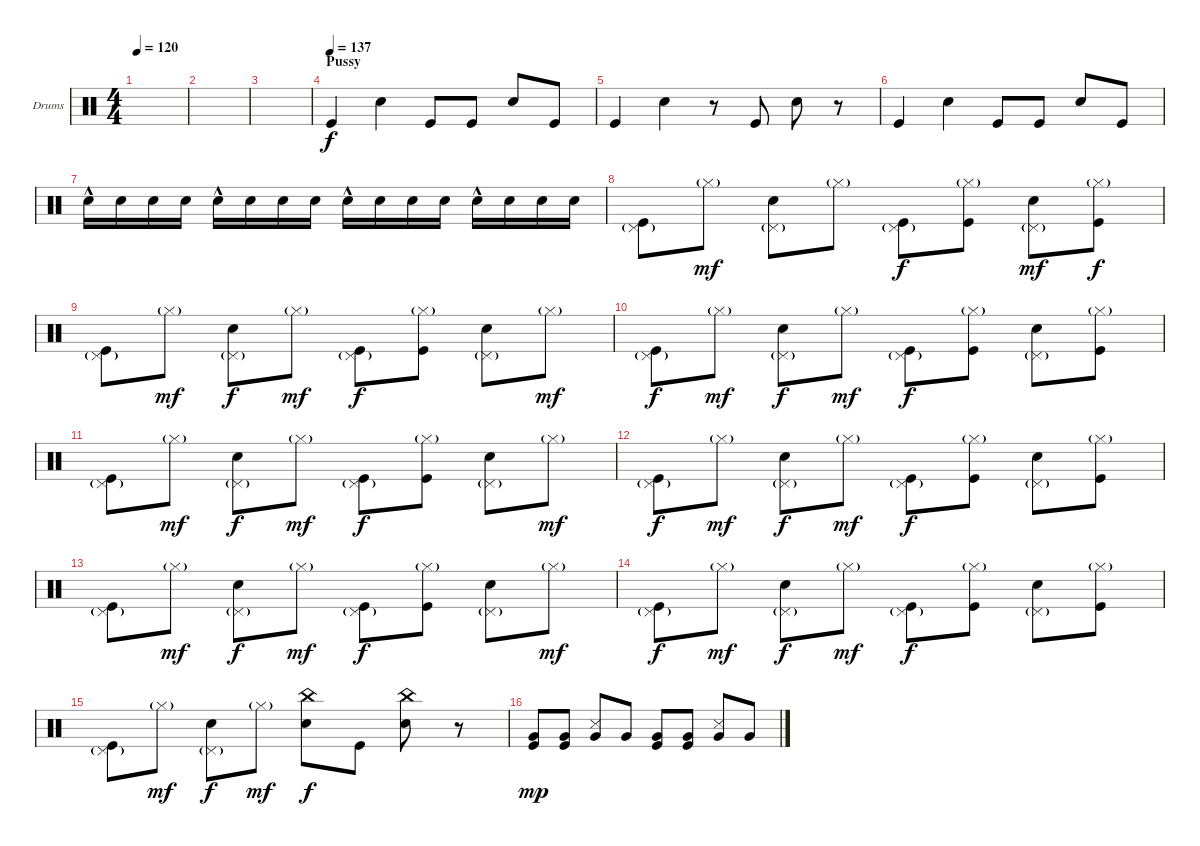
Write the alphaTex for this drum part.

\bracketExtendMode groupsimilarinstruments
\firstSystemTrackNameOrientation horizontal
\otherSystemsTrackNameOrientation horizontal
\track ("Drumkit (Christoph)" "Drums") {instrument percussion}
\staff {score}
\articulation defaults
\ts (4 4)
\tempo 120
\clef neutral
\ks c
|
|
|
\section ("" "Pussy")
\tempo (137)
"Kick (hit)".4 "Snare (hit) 2".4 "Kick (hit)".8 "Kick (hit)".8 "Snare (hit) 2".8 "Kick (hit)".8 |
"Kick (hit)".4 "Snare (hit) 2".4 r.8 "Kick (hit)".8 "Snare (hit) 2".8 r.8 |
"Kick (hit)".4 "Snare (hit) 2".4 "Kick (hit)".8 "Kick (hit)".8 "Snare (hit) 2".8 "Kick (hit)".8 |
"Snare (hit) 2"{hac}.16 "Snare (hit) 2".16 "Snare (hit) 2".16 "Snare (hit) 2".16 "Snare (hit) 2"{hac}.16 "Snare (hit) 2".16 "Snare (hit) 2".16 "Snare (hit) 2".16 "Snare (hit) 2"{hac}.16 "Snare (hit) 2".16 "Snare (hit) 2".16 "Snare (hit) 2".16 "Snare (hit) 2"{hac}.16 "Snare (hit) 2".16 "Snare (hit) 2".16 "Snare (hit) 2".16 |
("Pedal Hi-Hat (hit)"{g} "Kick (hit)").8 "Hi-Hat (closed)"{g}.8{dy mf} ("Pedal Hi-Hat (hit)"{g} "Snare (hit) 2").8 "Hi-Hat (closed)"{g}.8 ("Pedal Hi-Hat (hit)"{g} "Kick (hit)").8{dy f} ("Hi-Hat (closed)"{g} "Kick (hit)").8 ("Pedal Hi-Hat (hit)"{g} "Snare (hit) 2").8{dy mf} ("Hi-Hat (closed)"{g} "Kick (hit)").8{dy f} |
("Pedal Hi-Hat (hit)"{g} "Kick (hit)").8 "Hi-Hat (closed)"{g}.8{dy mf} ("Pedal Hi-Hat (hit)"{g} "Snare (hit) 2").8{dy f} "Hi-Hat (closed)"{g}.8{dy mf} ("Pedal Hi-Hat (hit)"{g} "Kick (hit)").8{dy f} ("Hi-Hat (closed)"{g} "Kick (hit)").8 ("Pedal Hi-Hat (hit)"{g} "Snare (hit) 2").8 "Hi-Hat (closed)"{g}.8{dy mf} |
("Pedal Hi-Hat (hit)"{g} "Kick (hit)").8{dy f} "Hi-Hat (closed)"{g}.8{dy mf} ("Pedal Hi-Hat (hit)"{g} "Snare (hit) 2").8{dy f} "Hi-Hat (closed)"{g}.8{dy mf} ("Pedal Hi-Hat (hit)"{g} "Kick (hit)").8{dy f} ("Hi-Hat (closed)"{g} "Kick (hit)").8 ("Pedal Hi-Hat (hit)"{g} "Snare (hit) 2").8 ("Hi-Hat (closed)"{g} "Kick (hit)").8 |
("Pedal Hi-Hat (hit)"{g} "Kick (hit)").8 "Hi-Hat (closed)"{g}.8{dy mf} ("Pedal Hi-Hat (hit)"{g} "Snare (hit) 2").8{dy f} "Hi-Hat (closed)"{g}.8{dy mf} ("Pedal Hi-Hat (hit)"{g} "Kick (hit)").8{dy f} ("Hi-Hat (closed)"{g} "Kick (hit)").8 ("Pedal Hi-Hat (hit)"{g} "Snare (hit) 2").8 "Hi-Hat (closed)"{g}.8{dy mf} |
("Pedal Hi-Hat (hit)"{g} "Kick (hit)").8{dy f} "Hi-Hat (closed)"{g}.8{dy mf} ("Pedal Hi-Hat (hit)"{g} "Snare (hit) 2").8{dy f} "Hi-Hat (closed)"{g}.8{dy mf} ("Pedal Hi-Hat (hit)"{g} "Kick (hit)").8{dy f} ("Hi-Hat (closed)"{g} "Kick (hit)").8 ("Pedal Hi-Hat (hit)"{g} "Snare (hit) 2").8 ("Hi-Hat (closed)"{g} "Kick (hit)").8 |
("Pedal Hi-Hat (hit)"{g} "Kick (hit)").8 "Hi-Hat (closed)"{g}.8{dy mf} ("Pedal Hi-Hat (hit)"{g} "Snare (hit) 2").8{dy f} "Hi-Hat (closed)"{g}.8{dy mf} ("Pedal Hi-Hat (hit)"{g} "Kick (hit)").8{dy f} ("Hi-Hat (closed)"{g} "Kick (hit)").8 ("Pedal Hi-Hat (hit)"{g} "Snare (hit) 2").8 "Hi-Hat (closed)"{g}.8{dy mf} |
("Pedal Hi-Hat (hit)"{g} "Kick (hit)").8{dy f} "Hi-Hat (closed)"{g}.8{dy mf} ("Pedal Hi-Hat (hit)"{g} "Snare (hit) 2").8{dy f} "Hi-Hat (closed)"{g}.8{dy mf} ("Pedal Hi-Hat (hit)"{g} "Kick (hit)").8{dy f} ("Hi-Hat (closed)"{g} "Kick (hit)").8 ("Pedal Hi-Hat (hit)"{g} "Snare (hit) 2").8 ("Hi-Hat (closed)"{g} "Kick (hit)").8 |
("Pedal Hi-Hat (hit)"{g} "Kick (hit)").8 "Hi-Hat (closed)"{g}.8{dy mf} ("Pedal Hi-Hat (hit)"{g} "Snare (hit) 2").8{dy f} "Hi-Hat (closed)"{g}.8{dy mf} ("China (hit)" "Snare (hit) 2").8{dy f} "Kick (hit)".8 ("China (hit)" "Snare (hit) 2").8 r.8 |
("Very Low Tom (hit)" "Kick (hit)").8{dy mp} ("Very Low Tom (hit)" "Kick (hit)").8 ("Snare (side stick) 3" "Very Low Tom (hit)").8 "Very Low Tom (hit)".8 ("Very Low Tom (hit)" "Kick (hit)").8 ("Very Low Tom (hit)" "Kick (hit)").8 ("Snare (side stick) 3" "Very Low Tom (hit)").8 "Very Low Tom (hit)".8
